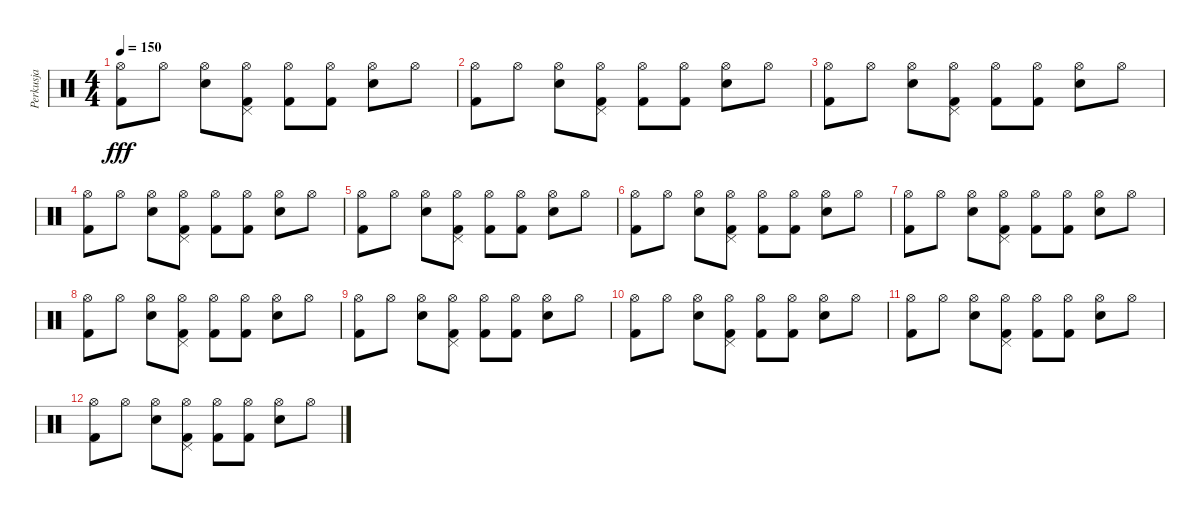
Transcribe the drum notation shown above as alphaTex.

\track ("Perkusja" "Perkusja") {instrument percussion}
\staff {score}
\articulation defaults
\ts (4 4)
\tempo 150
\clef neutral
\ks c
("Hi-Hat (open)" "Kick (hit) 2").8{dy fff} "Hi-Hat (open)".8 ("Hi-Hat (open)" "Electric Snare (hit)").8 ("Hi-Hat (open)" "Kick (hit) 2" "Pedal Hi-Hat (hit)").8 ("Hi-Hat (open)" "Kick (hit) 2").8 ("Hi-Hat (open)" "Kick (hit) 2").8 ("Hi-Hat (open)" "Electric Snare (hit)").8 "Hi-Hat (open)".8 |
("Hi-Hat (open)" "Kick (hit) 2").8 "Hi-Hat (open)".8 ("Hi-Hat (open)" "Electric Snare (hit)").8 ("Hi-Hat (open)" "Kick (hit) 2" "Pedal Hi-Hat (hit)").8 ("Hi-Hat (open)" "Kick (hit) 2").8 ("Hi-Hat (open)" "Kick (hit) 2").8 ("Hi-Hat (open)" "Electric Snare (hit)").8 "Hi-Hat (open)".8 |
("Hi-Hat (open)" "Kick (hit) 2").8 "Hi-Hat (open)".8 ("Hi-Hat (open)" "Electric Snare (hit)").8 ("Hi-Hat (open)" "Kick (hit) 2" "Pedal Hi-Hat (hit)").8 ("Hi-Hat (open)" "Kick (hit) 2").8 ("Hi-Hat (open)" "Kick (hit) 2").8 ("Hi-Hat (open)" "Electric Snare (hit)").8 "Hi-Hat (open)".8 |
("Hi-Hat (open)" "Kick (hit) 2").8 "Hi-Hat (open)".8 ("Hi-Hat (open)" "Electric Snare (hit)").8 ("Hi-Hat (open)" "Kick (hit) 2" "Pedal Hi-Hat (hit)").8 ("Hi-Hat (open)" "Kick (hit) 2").8 ("Hi-Hat (open)" "Kick (hit) 2").8 ("Hi-Hat (open)" "Electric Snare (hit)").8 "Hi-Hat (open)".8 |
("Hi-Hat (open)" "Kick (hit) 2").8 "Hi-Hat (open)".8 ("Hi-Hat (open)" "Electric Snare (hit)").8 ("Hi-Hat (open)" "Kick (hit) 2" "Pedal Hi-Hat (hit)").8 ("Hi-Hat (open)" "Kick (hit) 2").8 ("Hi-Hat (open)" "Kick (hit) 2").8 ("Hi-Hat (open)" "Electric Snare (hit)").8 "Hi-Hat (open)".8 |
("Hi-Hat (open)" "Kick (hit) 2").8 "Hi-Hat (open)".8 ("Hi-Hat (open)" "Electric Snare (hit)").8 ("Hi-Hat (open)" "Kick (hit) 2" "Pedal Hi-Hat (hit)").8 ("Hi-Hat (open)" "Kick (hit) 2").8 ("Hi-Hat (open)" "Kick (hit) 2").8 ("Hi-Hat (open)" "Electric Snare (hit)").8 "Hi-Hat (open)".8 |
("Hi-Hat (open)" "Kick (hit) 2").8 "Hi-Hat (open)".8 ("Hi-Hat (open)" "Electric Snare (hit)").8 ("Hi-Hat (open)" "Kick (hit) 2" "Pedal Hi-Hat (hit)").8 ("Hi-Hat (open)" "Kick (hit) 2").8 ("Hi-Hat (open)" "Kick (hit) 2").8 ("Hi-Hat (open)" "Electric Snare (hit)").8 "Hi-Hat (open)".8 |
("Hi-Hat (open)" "Kick (hit) 2").8 "Hi-Hat (open)".8 ("Hi-Hat (open)" "Electric Snare (hit)").8 ("Hi-Hat (open)" "Kick (hit) 2" "Pedal Hi-Hat (hit)").8 ("Hi-Hat (open)" "Kick (hit) 2").8 ("Hi-Hat (open)" "Kick (hit) 2").8 ("Hi-Hat (open)" "Electric Snare (hit)").8 "Hi-Hat (open)".8 |
("Hi-Hat (open)" "Kick (hit) 2").8 "Hi-Hat (open)".8 ("Hi-Hat (open)" "Electric Snare (hit)").8 ("Hi-Hat (open)" "Kick (hit) 2" "Pedal Hi-Hat (hit)").8 ("Hi-Hat (open)" "Kick (hit) 2").8 ("Hi-Hat (open)" "Kick (hit) 2").8 ("Hi-Hat (open)" "Electric Snare (hit)").8 "Hi-Hat (open)".8 |
("Hi-Hat (open)" "Kick (hit) 2").8 "Hi-Hat (open)".8 ("Hi-Hat (open)" "Electric Snare (hit)").8 ("Hi-Hat (open)" "Kick (hit) 2" "Pedal Hi-Hat (hit)").8 ("Hi-Hat (open)" "Kick (hit) 2").8 ("Hi-Hat (open)" "Kick (hit) 2").8 ("Hi-Hat (open)" "Electric Snare (hit)").8 "Hi-Hat (open)".8 |
("Hi-Hat (open)" "Kick (hit) 2").8 "Hi-Hat (open)".8 ("Hi-Hat (open)" "Electric Snare (hit)").8 ("Hi-Hat (open)" "Kick (hit) 2" "Pedal Hi-Hat (hit)").8 ("Hi-Hat (open)" "Kick (hit) 2").8 ("Hi-Hat (open)" "Kick (hit) 2").8 ("Hi-Hat (open)" "Electric Snare (hit)").8 "Hi-Hat (open)".8 |
("Hi-Hat (open)" "Kick (hit) 2").8 "Hi-Hat (open)".8 ("Hi-Hat (open)" "Electric Snare (hit)").8 ("Hi-Hat (open)" "Kick (hit) 2" "Pedal Hi-Hat (hit)").8 ("Hi-Hat (open)" "Kick (hit) 2").8 ("Hi-Hat (open)" "Kick (hit) 2").8 ("Hi-Hat (open)" "Electric Snare (hit)").8 "Hi-Hat (open)".8
